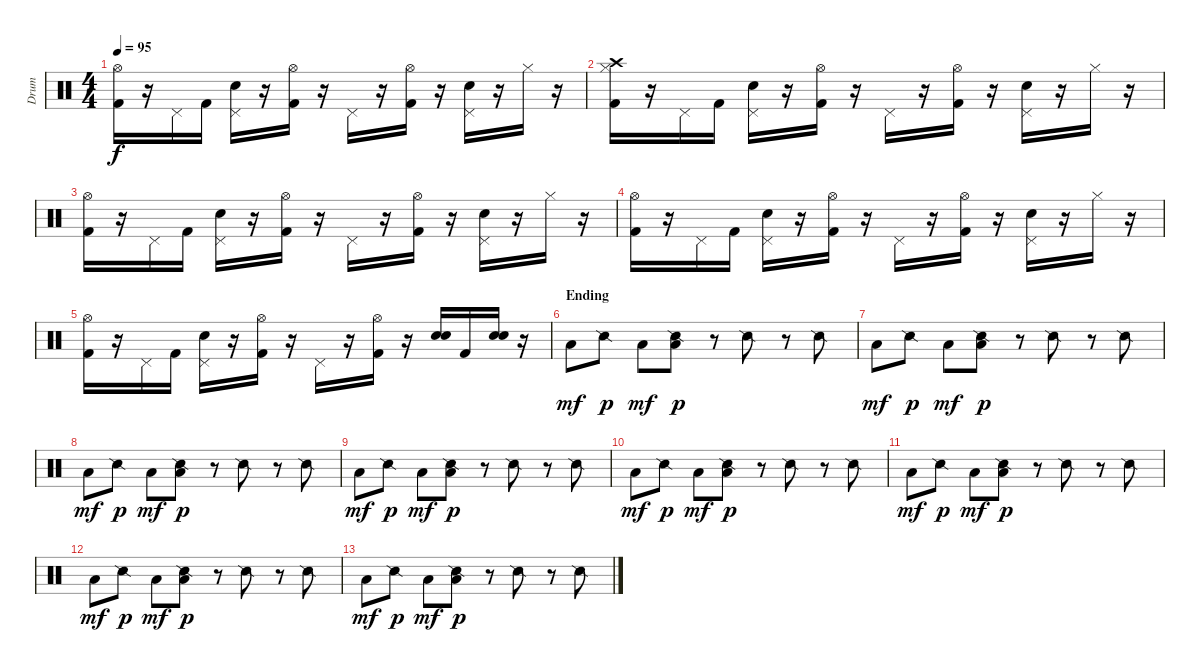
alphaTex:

\track ("Drum" "Drum") {instrument percussion}
\staff {score}
\articulation defaults
\ts (4 4)
\tempo 95
\clef neutral
\ks c
("Hi-Hat (open)" "Kick (hit) 2").16{dy f} r.16 "Pedal Hi-Hat (hit)".16 "Kick (hit) 2".16 ("Pedal Hi-Hat (hit)" "Electric Snare (hit)").16 r.16 ("Hi-Hat (open)" "Kick (hit) 2").16 r.16 "Pedal Hi-Hat (hit)".16 r.16 ("Hi-Hat (open)" "Kick (hit) 2").16 r.16 ("Pedal Hi-Hat (hit)" "Electric Snare (hit)").16 r.16 "Hi-Hat (closed)".16 r.16 |
("Crash high (hit)" "Hi-Hat (closed)" "Kick (hit) 2").16 r.16 "Pedal Hi-Hat (hit)".16 "Kick (hit) 2".16 ("Pedal Hi-Hat (hit)" "Electric Snare (hit)").16 r.16 ("Hi-Hat (open)" "Kick (hit) 2").16 r.16 "Pedal Hi-Hat (hit)".16 r.16 ("Hi-Hat (open)" "Kick (hit) 2").16 r.16 ("Pedal Hi-Hat (hit)" "Electric Snare (hit)").16 r.16 "Hi-Hat (closed)".16 r.16 |
("Hi-Hat (open)" "Kick (hit) 2").16 r.16 "Pedal Hi-Hat (hit)".16 "Kick (hit) 2".16 ("Pedal Hi-Hat (hit)" "Electric Snare (hit)").16 r.16 ("Hi-Hat (open)" "Kick (hit) 2").16 r.16 "Pedal Hi-Hat (hit)".16 r.16 ("Hi-Hat (open)" "Kick (hit) 2").16 r.16 ("Pedal Hi-Hat (hit)" "Electric Snare (hit)").16 r.16 "Hi-Hat (closed)".16 r.16 |
("Hi-Hat (open)" "Kick (hit) 2").16 r.16 "Pedal Hi-Hat (hit)".16 "Kick (hit) 2".16 ("Pedal Hi-Hat (hit)" "Electric Snare (hit)").16 r.16 ("Hi-Hat (open)" "Kick (hit) 2").16 r.16 "Pedal Hi-Hat (hit)".16 r.16 ("Hi-Hat (open)" "Kick (hit) 2").16 r.16 ("Pedal Hi-Hat (hit)" "Electric Snare (hit)").16 r.16 "Hi-Hat (closed)".16 r.16 |
("Hi-Hat (open)" "Kick (hit) 2").16 r.16 "Pedal Hi-Hat (hit)".16 "Kick (hit) 2".16 ("Pedal Hi-Hat (hit)" "Electric Snare (hit)").16 r.16 ("Hi-Hat (open)" "Kick (hit) 2").16 r.16 "Pedal Hi-Hat (hit)".16 r.16 ("Hi-Hat (open)" "Kick (hit) 2").16 r.16 ("Electric Snare (hit)" "Electric Snare (hit)").16{bd 60} "Kick (hit) 2".16 ("Electric Snare (hit)" "Electric Snare (hit)").16{bd 60} r.16 |
\section ("" "Ending")
"Low Floor Tom (hit)".8{dy mf} "Snare (side stick) 2".8{dy p} "Low Floor Tom (hit)".8{dy mf} ("Low Floor Tom (hit)" "Snare (side stick) 2").8{dy p} r.8 "Snare (side stick) 2".8 r.8 "Snare (side stick) 2".8 |
"Low Floor Tom (hit)".8{dy mf} "Snare (side stick) 2".8{dy p} "Low Floor Tom (hit)".8{dy mf} ("Low Floor Tom (hit)" "Snare (side stick) 2").8{dy p} r.8 "Snare (side stick) 2".8 r.8 "Snare (side stick) 2".8 |
"Low Floor Tom (hit)".8{dy mf} "Snare (side stick) 2".8{dy p} "Low Floor Tom (hit)".8{dy mf} ("Low Floor Tom (hit)" "Snare (side stick) 2").8{dy p} r.8 "Snare (side stick) 2".8 r.8 "Snare (side stick) 2".8 |
"Low Floor Tom (hit)".8{dy mf} "Snare (side stick) 2".8{dy p} "Low Floor Tom (hit)".8{dy mf} ("Low Floor Tom (hit)" "Snare (side stick) 2").8{dy p} r.8 "Snare (side stick) 2".8 r.8 "Snare (side stick) 2".8 |
"Low Floor Tom (hit)".8{dy mf} "Snare (side stick) 2".8{dy p} "Low Floor Tom (hit)".8{dy mf} ("Low Floor Tom (hit)" "Snare (side stick) 2").8{dy p} r.8 "Snare (side stick) 2".8 r.8 "Snare (side stick) 2".8 |
"Low Floor Tom (hit)".8{dy mf} "Snare (side stick) 2".8{dy p} "Low Floor Tom (hit)".8{dy mf} ("Low Floor Tom (hit)" "Snare (side stick) 2").8{dy p} r.8 "Snare (side stick) 2".8 r.8 "Snare (side stick) 2".8 |
"Low Floor Tom (hit)".8{dy mf} "Snare (side stick) 2".8{dy p} "Low Floor Tom (hit)".8{dy mf} ("Low Floor Tom (hit)" "Snare (side stick) 2").8{dy p} r.8 "Snare (side stick) 2".8 r.8 "Snare (side stick) 2".8 |
"Low Floor Tom (hit)".8{dy mf} "Snare (side stick) 2".8{dy p} "Low Floor Tom (hit)".8{dy mf} ("Low Floor Tom (hit)" "Snare (side stick) 2").8{dy p} r.8 "Snare (side stick) 2".8 r.8 "Snare (side stick) 2".8
